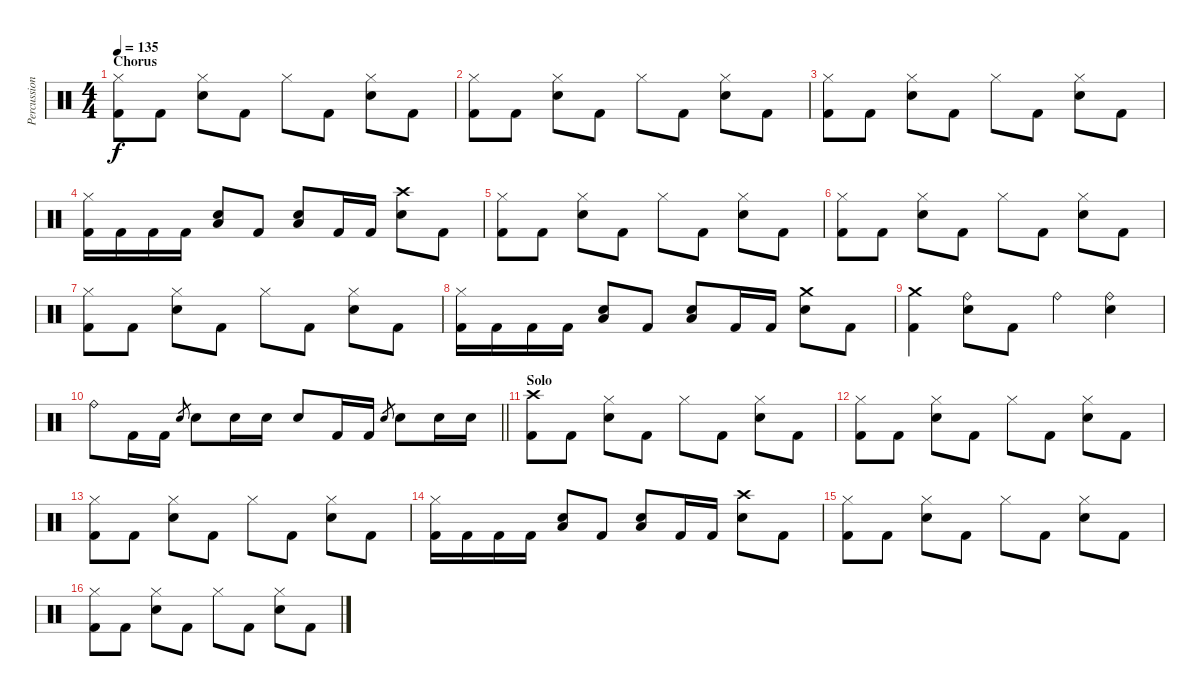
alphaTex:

\track ("Percussion" "Percussion") {instrument percussion}
\staff {score}
\articulation defaults
\ts (4 4)
\section ("" "Chorus")
\tempo 135
\clef neutral
\ks c
("Hi-Hat (closed)" "Kick (hit) 2").8{dy f} "Kick (hit) 2".8 ("Hi-Hat (closed)" "Electric Snare (hit)").8 "Kick (hit) 2".8 "Hi-Hat (closed)".8 "Kick (hit) 2".8 ("Hi-Hat (closed)" "Electric Snare (hit)").8 "Kick (hit) 2".8 |
("Hi-Hat (closed)" "Kick (hit) 2").8 "Kick (hit) 2".8 ("Hi-Hat (closed)" "Electric Snare (hit)").8 "Kick (hit) 2".8 "Hi-Hat (closed)".8 "Kick (hit) 2".8 ("Hi-Hat (closed)" "Electric Snare (hit)").8 "Kick (hit) 2".8 |
("Hi-Hat (closed)" "Kick (hit) 2").8 "Kick (hit) 2".8 ("Hi-Hat (closed)" "Electric Snare (hit)").8 "Kick (hit) 2".8 "Hi-Hat (closed)".8 "Kick (hit) 2".8 ("Hi-Hat (closed)" "Electric Snare (hit)").8 "Kick (hit) 2".8 |
("Hi-Hat (closed)" "Kick (hit) 2").16 "Kick (hit) 2".16 "Kick (hit) 2".16 "Kick (hit) 2".16 ("Electric Snare (hit)" "Low Floor Tom (hit)").8 "Kick (hit) 2".8 ("Electric Snare (hit)" "Low Floor Tom (hit)").8 "Kick (hit) 2".16 "Kick (hit) 2".16 ("Crash high (hit)" "Electric Snare (hit)").8 "Kick (hit) 2".8 |
("Hi-Hat (closed)" "Kick (hit) 2").8 "Kick (hit) 2".8 ("Hi-Hat (closed)" "Electric Snare (hit)").8 "Kick (hit) 2".8 "Hi-Hat (closed)".8 "Kick (hit) 2".8 ("Hi-Hat (closed)" "Electric Snare (hit)").8 "Kick (hit) 2".8 |
("Hi-Hat (closed)" "Kick (hit) 2").8 "Kick (hit) 2".8 ("Hi-Hat (closed)" "Electric Snare (hit)").8 "Kick (hit) 2".8 "Hi-Hat (closed)".8 "Kick (hit) 2".8 ("Hi-Hat (closed)" "Electric Snare (hit)").8 "Kick (hit) 2".8 |
("Hi-Hat (closed)" "Kick (hit) 2").8 "Kick (hit) 2".8 ("Hi-Hat (closed)" "Electric Snare (hit)").8 "Kick (hit) 2".8 "Hi-Hat (closed)".8 "Kick (hit) 2".8 ("Hi-Hat (closed)" "Electric Snare (hit)").8 "Kick (hit) 2".8 |
("Hi-Hat (closed)" "Kick (hit) 2").16 "Kick (hit) 2".16 "Kick (hit) 2".16 "Kick (hit) 2".16 ("Electric Snare (hit)" "Low Floor Tom (hit)").8 "Kick (hit) 2".8 ("Electric Snare (hit)" "Low Floor Tom (hit)").8 "Kick (hit) 2".16 "Kick (hit) 2".16 ("Crash medium (hit)" "Electric Snare (hit)").8 "Kick (hit) 2".8 |
("Crash medium (hit)" "Kick (hit) 2").4 ("Ride (bell)" "Electric Snare (hit)").8 "Kick (hit) 2".8 "Ride (bell)".4 ("Ride (bell)" "Electric Snare (hit)").4 |
\barLineRight lightlight "Ride (bell)".8 "Kick (hit) 2".16 "Kick (hit) 2".16 "Electric Snare (hit)".8{gr} "Electric Snare (hit)".8 "Electric Snare (hit)".16 "Electric Snare (hit)".16 "Electric Snare (hit)".8 "Kick (hit) 2".16 "Kick (hit) 2".16 "Electric Snare (hit)".8{gr} "Electric Snare (hit)".8 "Electric Snare (hit)".16 "Electric Snare (hit)".16
|
\section ("" "Solo")
("Crash high (hit)" "Kick (hit) 2").8 "Kick (hit) 2".8 ("Hi-Hat (closed)" "Electric Snare (hit)").8 "Kick (hit) 2".8 "Hi-Hat (closed)".8 "Kick (hit) 2".8 ("Hi-Hat (closed)" "Electric Snare (hit)").8 "Kick (hit) 2".8 |
("Hi-Hat (closed)" "Kick (hit) 2").8 "Kick (hit) 2".8 ("Hi-Hat (closed)" "Electric Snare (hit)").8 "Kick (hit) 2".8 "Hi-Hat (closed)".8 "Kick (hit) 2".8 ("Hi-Hat (closed)" "Electric Snare (hit)").8 "Kick (hit) 2".8 |
("Hi-Hat (closed)" "Kick (hit) 2").8 "Kick (hit) 2".8 ("Hi-Hat (closed)" "Electric Snare (hit)").8 "Kick (hit) 2".8 "Hi-Hat (closed)".8 "Kick (hit) 2".8 ("Hi-Hat (closed)" "Electric Snare (hit)").8 "Kick (hit) 2".8 |
("Hi-Hat (closed)" "Kick (hit) 2").16 "Kick (hit) 2".16 "Kick (hit) 2".16 "Kick (hit) 2".16 ("Electric Snare (hit)" "Low Floor Tom (hit)").8 "Kick (hit) 2".8 ("Electric Snare (hit)" "Low Floor Tom (hit)").8 "Kick (hit) 2".16 "Kick (hit) 2".16 ("Crash high (hit)" "Electric Snare (hit)").8 "Kick (hit) 2".8 |
("Hi-Hat (closed)" "Kick (hit) 2").8 "Kick (hit) 2".8 ("Hi-Hat (closed)" "Electric Snare (hit)").8 "Kick (hit) 2".8 "Hi-Hat (closed)".8 "Kick (hit) 2".8 ("Hi-Hat (closed)" "Electric Snare (hit)").8 "Kick (hit) 2".8 |
("Hi-Hat (closed)" "Kick (hit) 2").8 "Kick (hit) 2".8 ("Hi-Hat (closed)" "Electric Snare (hit)").8 "Kick (hit) 2".8 "Hi-Hat (closed)".8 "Kick (hit) 2".8 ("Hi-Hat (closed)" "Electric Snare (hit)").8 "Kick (hit) 2".8
